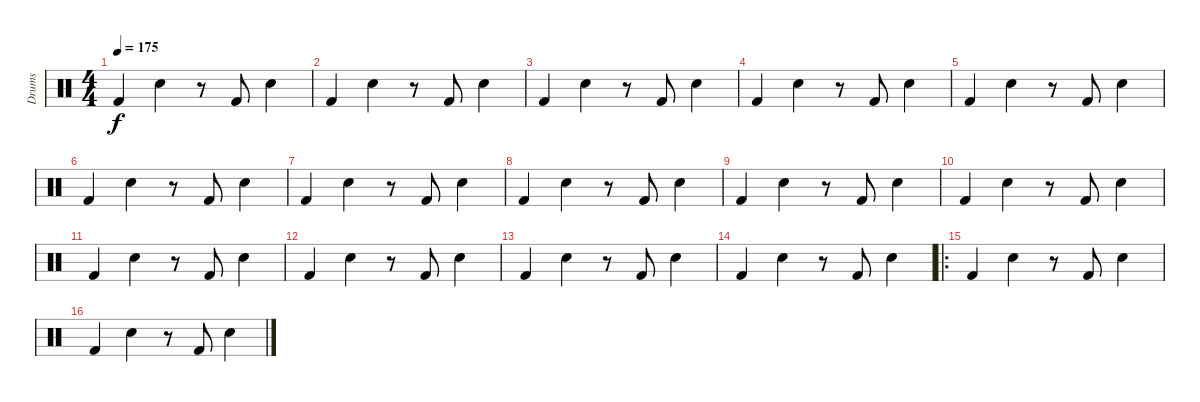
\track ("Drums" "Drums") {instrument percussion}
\staff {score}
\articulation defaults
\ts (4 4)
\tempo 175
\clef neutral
\ks c "Kick (hit) 2".4{dy f} "Electric Snare (hit)".4
r.8 "Kick (hit) 2".8 "Electric Snare (hit)".4 |
"Kick (hit) 2".4 "Electric Snare (hit)".4 r.8 "Kick (hit) 2".8 "Electric Snare (hit)".4 |
"Kick (hit) 2".4 "Electric Snare (hit)".4 r.8 "Kick (hit) 2".8 "Electric Snare (hit)".4 |
"Kick (hit) 2".4 "Electric Snare (hit)".4 r.8 "Kick (hit) 2".8 "Electric Snare (hit)".4 |
"Kick (hit) 2".4 "Electric Snare (hit)".4 r.8 "Kick (hit) 2".8 "Electric Snare (hit)".4 |
"Kick (hit) 2".4 "Electric Snare (hit)".4 r.8 "Kick (hit) 2".8 "Electric Snare (hit)".4 |
"Kick (hit) 2".4 "Electric Snare (hit)".4 r.8 "Kick (hit) 2".8 "Electric Snare (hit)".4 |
"Kick (hit) 2".4 "Electric Snare (hit)".4 r.8 "Kick (hit) 2".8 "Electric Snare (hit)".4 |
"Kick (hit) 2".4 "Electric Snare (hit)".4 r.8 "Kick (hit) 2".8 "Electric Snare (hit)".4 |
"Kick (hit) 2".4 "Electric Snare (hit)".4 r.8 "Kick (hit) 2".8 "Electric Snare (hit)".4 |
"Kick (hit) 2".4 "Electric Snare (hit)".4 r.8 "Kick (hit) 2".8 "Electric Snare (hit)".4 |
"Kick (hit) 2".4 "Electric Snare (hit)".4 r.8 "Kick (hit) 2".8 "Electric Snare (hit)".4 |
"Kick (hit) 2".4 "Electric Snare (hit)".4 r.8 "Kick (hit) 2".8 "Electric Snare (hit)".4 |
"Kick (hit) 2".4 "Electric Snare (hit)".4 r.8 "Kick (hit) 2".8 "Electric Snare (hit)".4 |
\ro "Kick (hit) 2".4 "Electric Snare (hit)".4
r.8 "Kick (hit) 2".8 "Electric Snare (hit)".4 |
"Kick (hit) 2".4 "Electric Snare (hit)".4 r.8 "Kick (hit) 2".8 "Electric Snare (hit)".4
